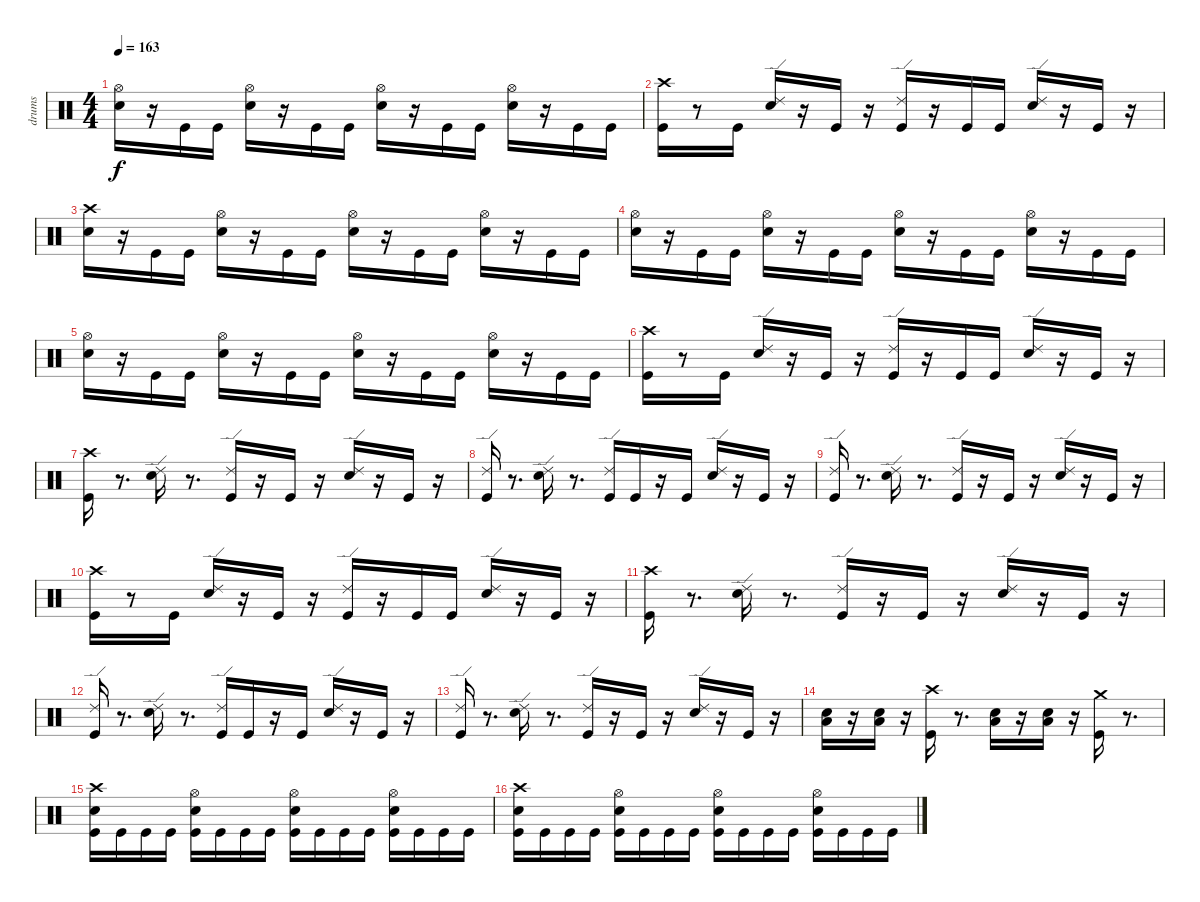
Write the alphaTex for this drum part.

\track ("drums" "drums") {instrument percussion}
\staff {score}
\articulation defaults
\ts (4 4)
\tempo 163
\clef neutral
\ks c
("Hi-Hat (open)" "Snare (hit) 2").16{dy f} r.16 "Kick (hit)".16 "Kick (hit)".16 ("Hi-Hat (open)" "Snare (hit) 2").16 r.16 "Kick (hit)".16 "Kick (hit)".16 ("Hi-Hat (open)" "Snare (hit) 2").16 r.16 "Kick (hit)".16 "Kick (hit)".16 ("Hi-Hat (open)" "Snare (hit) 2").16 r.16 "Kick (hit)".16 "Kick (hit)".16 |
("Crash high (hit)" "Kick (hit)").16 r.8 "Kick (hit)".16 ("Ride (edge) 2" "Snare (hit) 2").16 r.16 "Kick (hit)".16 r.16 ("Ride (edge) 2" "Kick (hit)").16 r.16 "Kick (hit)".16 "Kick (hit)".16 ("Ride (edge) 2" "Snare (hit) 2").16 r.16 "Kick (hit)".16 r.16 |
("Crash high (hit)" "Snare (hit) 2").16 r.16 "Kick (hit)".16 "Kick (hit)".16 ("Hi-Hat (open)" "Snare (hit) 2").16 r.16 "Kick (hit)".16 "Kick (hit)".16 ("Hi-Hat (open)" "Snare (hit) 2").16 r.16 "Kick (hit)".16 "Kick (hit)".16 ("Hi-Hat (open)" "Snare (hit) 2").16 r.16 "Kick (hit)".16 "Kick (hit)".16 |
("Hi-Hat (open)" "Snare (hit) 2").16 r.16 "Kick (hit)".16 "Kick (hit)".16 ("Hi-Hat (open)" "Snare (hit) 2").16 r.16 "Kick (hit)".16 "Kick (hit)".16 ("Hi-Hat (open)" "Snare (hit) 2").16 r.16 "Kick (hit)".16 "Kick (hit)".16 ("Hi-Hat (open)" "Snare (hit) 2").16 r.16 "Kick (hit)".16 "Kick (hit)".16 |
("Hi-Hat (open)" "Snare (hit) 2").16 r.16 "Kick (hit)".16 "Kick (hit)".16 ("Hi-Hat (open)" "Snare (hit) 2").16 r.16 "Kick (hit)".16 "Kick (hit)".16 ("Hi-Hat (open)" "Snare (hit) 2").16 r.16 "Kick (hit)".16 "Kick (hit)".16 ("Hi-Hat (open)" "Snare (hit) 2").16 r.16 "Kick (hit)".16 "Kick (hit)".16 |
("Crash high (hit)" "Kick (hit)").16 r.8 "Kick (hit)".16 ("Ride (edge) 2" "Snare (hit) 2").16 r.16 "Kick (hit)".16 r.16 ("Ride (edge) 2" "Kick (hit)").16 r.16 "Kick (hit)".16 "Kick (hit)".16 ("Ride (edge) 2" "Snare (hit) 2").16 r.16 "Kick (hit)".16 r.16 |
("Crash high (hit)" "Kick (hit)").16 r.8{d} ("Ride (edge) 2" "Snare (hit) 2").16 r.8{d} ("Ride (edge) 2" "Kick (hit)").16 r.16 "Kick (hit)".16 r.16 ("Ride (edge) 2" "Snare (hit) 2").16 r.16 "Kick (hit)".16 r.16 |
("Ride (edge) 2" "Kick (hit)").16 r.8{d} ("Ride (edge) 2" "Snare (hit) 2").16 r.8{d} ("Ride (edge) 2" "Kick (hit)").16 "Kick (hit)".16 r.16 "Kick (hit)".16 ("Ride (edge) 2" "Snare (hit) 2").16 r.16 "Kick (hit)".16 r.16 |
("Ride (edge) 2" "Kick (hit)").16 r.8{d} ("Ride (edge) 2" "Snare (hit) 2").16 r.8{d} ("Ride (edge) 2" "Kick (hit)").16 r.16 "Kick (hit)".16 r.16 ("Ride (edge) 2" "Snare (hit) 2").16 r.16 "Kick (hit)".16 r.16 |
("Crash high (hit)" "Kick (hit)").16 r.8 "Kick (hit)".16 ("Ride (edge) 2" "Snare (hit) 2").16 r.16 "Kick (hit)".16 r.16 ("Ride (edge) 2" "Kick (hit)").16 r.16 "Kick (hit)".16 "Kick (hit)".16 ("Ride (edge) 2" "Snare (hit) 2").16 r.16 "Kick (hit)".16 r.16 |
("Crash high (hit)" "Kick (hit)").16 r.8{d} ("Ride (edge) 2" "Snare (hit) 2").16 r.8{d} ("Ride (edge) 2" "Kick (hit)").16 r.16 "Kick (hit)".16 r.16 ("Ride (edge) 2" "Snare (hit) 2").16 r.16 "Kick (hit)".16 r.16 |
("Ride (edge) 2" "Kick (hit)").16 r.8{d} ("Ride (edge) 2" "Snare (hit) 2").16 r.8{d} ("Ride (edge) 2" "Kick (hit)").16 "Kick (hit)".16 r.16 "Kick (hit)".16 ("Ride (edge) 2" "Snare (hit) 2").16 r.16 "Kick (hit)".16 r.16 |
("Ride (edge) 2" "Kick (hit)").16 r.8{d} ("Ride (edge) 2" "Snare (hit) 2").16 r.8{d} ("Ride (edge) 2" "Kick (hit)").16 r.16 "Kick (hit)".16 r.16 ("Ride (edge) 2" "Snare (hit) 2").16 r.16 "Kick (hit)".16 r.16 |
("Snare (hit) 2" "Low Tom (hit)").16 r.16 ("Snare (hit) 2" "Low Tom (hit)").16 r.16 ("Kick (hit)" "Crash high (hit)").16 r.8{d} ("Snare (hit) 2" "Low Tom (hit)").16 r.16 ("Snare (hit) 2" "Low Tom (hit)").16 r.16 ("Crash medium (hit)" "Kick (hit)").16 r.8{d} |
("Crash high (hit)" "Snare (hit) 2" "Kick (hit)").16 "Kick (hit)".16 "Kick (hit)".16 "Kick (hit)".16 ("Hi-Hat (open)" "Snare (hit) 2" "Kick (hit)").16 "Kick (hit)".16 "Kick (hit)".16 "Kick (hit)".16 ("Hi-Hat (open)" "Snare (hit) 2" "Kick (hit)").16 "Kick (hit)".16 "Kick (hit)".16 "Kick (hit)".16 ("Hi-Hat (open)" "Snare (hit) 2" "Kick (hit)").16 "Kick (hit)".16 "Kick (hit)".16 "Kick (hit)".16 |
("Crash high (hit)" "Snare (hit) 2" "Kick (hit)").16 "Kick (hit)".16 "Kick (hit)".16 "Kick (hit)".16 ("Hi-Hat (open)" "Snare (hit) 2" "Kick (hit)").16 "Kick (hit)".16 "Kick (hit)".16 "Kick (hit)".16 ("Hi-Hat (open)" "Snare (hit) 2" "Kick (hit)").16 "Kick (hit)".16 "Kick (hit)".16 "Kick (hit)".16 ("Hi-Hat (open)" "Snare (hit) 2" "Kick (hit)").16 "Kick (hit)".16 "Kick (hit)".16 "Kick (hit)".16
